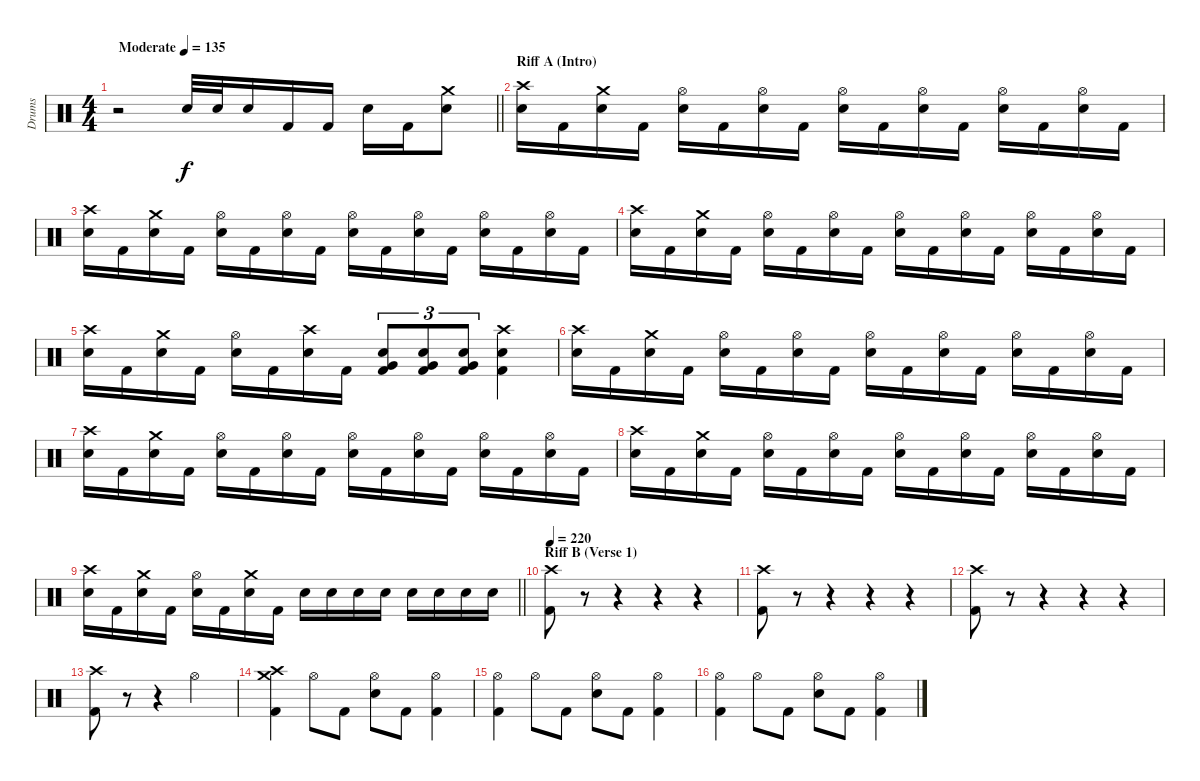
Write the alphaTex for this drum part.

\track ("Drums" "Drums") {instrument percussion}
\staff {score}
\articulation defaults
\ts (4 4)
\tempo (135 "Moderate")
\clef neutral
\barLineRight lightlight
\ks c
r.2{dy f} "Snare (hit) 2".32 "Snare (hit) 2".32 "Snare (hit) 2".16 "Kick (hit) 2".16 "Kick (hit) 2".16 "Snare (hit) 2".16 "Kick (hit) 2".16 ("Crash medium (hit)" "Snare (hit) 2").8 |
\section ("" "Riff A (Intro)")
("Crash high (hit)" "Snare (hit) 2").16 "Kick (hit) 2".16 ("Crash medium (hit)" "Snare (hit) 2").16 "Kick (hit) 2".16 ("Hi-Hat (open)" "Snare (hit) 2").16 "Kick (hit) 2".16 ("Hi-Hat (open)" "Snare (hit) 2").16 "Kick (hit) 2".16 ("Hi-Hat (open)" "Snare (hit) 2").16 "Kick (hit) 2".16 ("Hi-Hat (open)" "Snare (hit) 2").16 "Kick (hit) 2".16 ("Hi-Hat (open)" "Snare (hit) 2").16 "Kick (hit) 2".16 ("Hi-Hat (open)" "Snare (hit) 2").16 "Kick (hit) 2".16 |
("Crash high (hit)" "Snare (hit) 2").16 "Kick (hit) 2".16 ("Crash medium (hit)" "Snare (hit) 2").16 "Kick (hit) 2".16 ("Hi-Hat (open)" "Snare (hit) 2").16 "Kick (hit) 2".16 ("Hi-Hat (open)" "Snare (hit) 2").16 "Kick (hit) 2".16 ("Hi-Hat (open)" "Snare (hit) 2").16 "Kick (hit) 2".16 ("Hi-Hat (open)" "Snare (hit) 2").16 "Kick (hit) 2".16 ("Hi-Hat (open)" "Snare (hit) 2").16 "Kick (hit) 2".16 ("Hi-Hat (open)" "Snare (hit) 2").16 "Kick (hit) 2".16 |
("Crash high (hit)" "Snare (hit) 2").16 "Kick (hit) 2".16 ("Crash medium (hit)" "Snare (hit) 2").16 "Kick (hit) 2".16 ("Hi-Hat (open)" "Snare (hit) 2").16 "Kick (hit) 2".16 ("Hi-Hat (open)" "Snare (hit) 2").16 "Kick (hit) 2".16 ("Hi-Hat (open)" "Snare (hit) 2").16 "Kick (hit) 2".16 ("Hi-Hat (open)" "Snare (hit) 2").16 "Kick (hit) 2".16 ("Hi-Hat (open)" "Snare (hit) 2").16 "Kick (hit) 2".16 ("Hi-Hat (open)" "Snare (hit) 2").16 "Kick (hit) 2".16 |
("Crash high (hit)" "Snare (hit) 2").16 "Kick (hit) 2".16 ("Crash medium (hit)" "Snare (hit) 2").16 "Kick (hit) 2".16 ("Hi-Hat (open)" "Snare (hit) 2").16 "Kick (hit) 2".16 ("Crash high (hit)" "Snare (hit) 2").16 "Kick (hit) 2".16 ("Very Low Tom (hit)" "Snare (hit) 2" "Kick (hit) 2").8{tu (3 2)} ("Very Low Tom (hit)" "Snare (hit) 2" "Kick (hit) 2").8{tu (3 2)} ("Very Low Tom (hit)" "Snare (hit) 2" "Kick (hit) 2").8{tu (3 2)} ("Crash high (hit)" "Snare (hit) 2" "Kick (hit) 2").4 |
("Crash high (hit)" "Snare (hit) 2").16 "Kick (hit) 2".16 ("Crash medium (hit)" "Snare (hit) 2").16 "Kick (hit) 2".16 ("Hi-Hat (open)" "Snare (hit) 2").16 "Kick (hit) 2".16 ("Hi-Hat (open)" "Snare (hit) 2").16 "Kick (hit) 2".16 ("Hi-Hat (open)" "Snare (hit) 2").16 "Kick (hit) 2".16 ("Hi-Hat (open)" "Snare (hit) 2").16 "Kick (hit) 2".16 ("Hi-Hat (open)" "Snare (hit) 2").16 "Kick (hit) 2".16 ("Hi-Hat (open)" "Snare (hit) 2").16 "Kick (hit) 2".16 |
("Crash high (hit)" "Snare (hit) 2").16 "Kick (hit) 2".16 ("Crash medium (hit)" "Snare (hit) 2").16 "Kick (hit) 2".16 ("Hi-Hat (open)" "Snare (hit) 2").16 "Kick (hit) 2".16 ("Hi-Hat (open)" "Snare (hit) 2").16 "Kick (hit) 2".16 ("Hi-Hat (open)" "Snare (hit) 2").16 "Kick (hit) 2".16 ("Hi-Hat (open)" "Snare (hit) 2").16 "Kick (hit) 2".16 ("Hi-Hat (open)" "Snare (hit) 2").16 "Kick (hit) 2".16 ("Hi-Hat (open)" "Snare (hit) 2").16 "Kick (hit) 2".16 |
("Crash high (hit)" "Snare (hit) 2").16 "Kick (hit) 2".16 ("Crash medium (hit)" "Snare (hit) 2").16 "Kick (hit) 2".16 ("Hi-Hat (open)" "Snare (hit) 2").16 "Kick (hit) 2".16 ("Hi-Hat (open)" "Snare (hit) 2").16 "Kick (hit) 2".16 ("Hi-Hat (open)" "Snare (hit) 2").16 "Kick (hit) 2".16 ("Hi-Hat (open)" "Snare (hit) 2").16 "Kick (hit) 2".16 ("Hi-Hat (open)" "Snare (hit) 2").16 "Kick (hit) 2".16 ("Hi-Hat (open)" "Snare (hit) 2").16 "Kick (hit) 2".16 |
\barLineRight lightlight
("Crash high (hit)" "Snare (hit) 2").16 "Kick (hit) 2".16 ("Crash medium (hit)" "Snare (hit) 2").16 "Kick (hit) 2".16 ("Hi-Hat (open)" "Snare (hit) 2").16 "Kick (hit) 2".16 ("Crash medium (hit)" "Snare (hit) 2").16 "Kick (hit) 2".16 "Snare (hit) 2".16 "Snare (hit) 2".16 "Snare (hit) 2".16 "Snare (hit) 2".16 "Snare (hit) 2".16 "Snare (hit) 2".16 "Snare (hit) 2".16 "Snare (hit) 2".16 |
\section ("" "Riff B (Verse 1)")
\tempo 220
("Crash high (hit)" "Kick (hit) 2").8 r.8 r.4 r.4 r.4 |
("Crash high (hit)" "Kick (hit) 2").8 r.8 r.4 r.4 r.4 |
("Crash high (hit)" "Kick (hit) 2").8 r.8 r.4 r.4 r.4 |
("Crash high (hit)" "Kick (hit) 2").8 r.8 r.4 "Hi-Hat (open)".2 |
("Crash high (hit)" "Crash medium (hit)" "Kick (hit) 2").4 "Hi-Hat (open)".8 "Kick (hit) 2".8 ("Hi-Hat (open)" "Snare (hit) 2").8 "Kick (hit) 2".8 ("Hi-Hat (open)" "Kick (hit) 2").4 |
("Hi-Hat (open)" "Kick (hit) 2").4 "Hi-Hat (open)".8 "Kick (hit) 2".8 ("Hi-Hat (open)" "Snare (hit) 2").8 "Kick (hit) 2".8 ("Hi-Hat (open)" "Kick (hit) 2").4 |
("Hi-Hat (open)" "Kick (hit) 2").4 "Hi-Hat (open)".8 "Kick (hit) 2".8 ("Hi-Hat (open)" "Snare (hit) 2").8 "Kick (hit) 2".8 ("Hi-Hat (open)" "Kick (hit) 2").4
